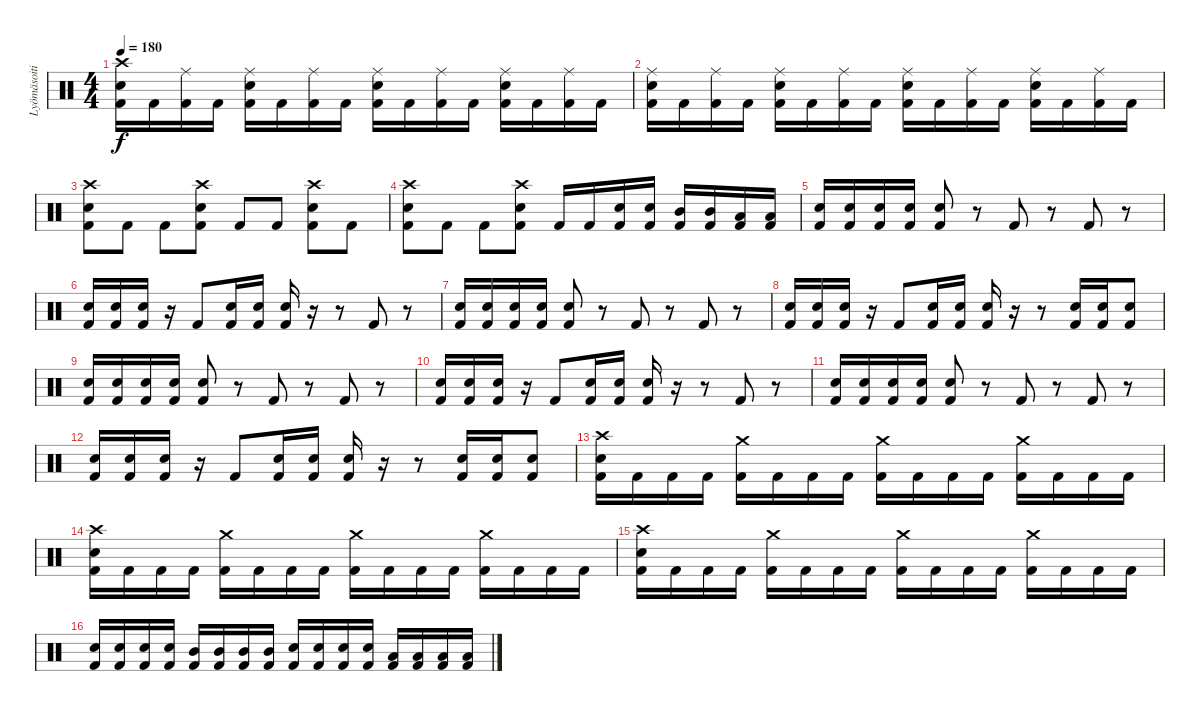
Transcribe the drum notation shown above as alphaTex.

\track ("Lyömäsoitin" "Lyömäsoiti") {instrument percussion}
\staff {score}
\articulation defaults
\ts (4 4)
\tempo 180
\clef neutral
\ks c
("Kick (hit) 2" "Electric Snare (hit)" "Crash high (hit)").16{dy f} "Kick (hit) 2".16 ("Kick (hit) 2" "Ride (middle)").16 "Kick (hit) 2".16 ("Kick (hit) 2" "Electric Snare (hit)" "Ride (middle)").16 "Kick (hit) 2".16 ("Kick (hit) 2" "Ride (middle)").16 "Kick (hit) 2".16 ("Kick (hit) 2" "Electric Snare (hit)" "Ride (middle)").16 "Kick (hit) 2".16 ("Kick (hit) 2" "Ride (middle)").16 "Kick (hit) 2".16 ("Kick (hit) 2" "Electric Snare (hit)" "Ride (middle)").16 "Kick (hit) 2".16 ("Kick (hit) 2" "Ride (middle)").16 "Kick (hit) 2".16 |
("Kick (hit) 2" "Electric Snare (hit)" "Ride (middle)").16 "Kick (hit) 2".16 ("Kick (hit) 2" "Ride (middle)").16 "Kick (hit) 2".16 ("Kick (hit) 2" "Electric Snare (hit)" "Ride (middle)").16 "Kick (hit) 2".16 ("Kick (hit) 2" "Ride (middle)").16 "Kick (hit) 2".16 ("Kick (hit) 2" "Electric Snare (hit)" "Ride (middle)").16 "Kick (hit) 2".16 ("Kick (hit) 2" "Ride (middle)").16 "Kick (hit) 2".16 ("Kick (hit) 2" "Electric Snare (hit)" "Ride (middle)").16 "Kick (hit) 2".16 ("Kick (hit) 2" "Ride (middle)").16 "Kick (hit) 2".16 |
("Kick (hit) 2" "Electric Snare (hit)" "Crash high (hit)").8 "Kick (hit) 2".8 "Kick (hit) 2".8 ("Kick (hit) 2" "Electric Snare (hit)" "Crash high (hit)").8 "Kick (hit) 2".8 "Kick (hit) 2".8 ("Kick (hit) 2" "Electric Snare (hit)" "Crash high (hit)").8 "Kick (hit) 2".8 |
("Kick (hit) 2" "Electric Snare (hit)" "Crash high (hit)").8 "Kick (hit) 2".8 "Kick (hit) 2".8 ("Kick (hit) 2" "Electric Snare (hit)" "Crash high (hit)").8 "Kick (hit) 2".16 "Kick (hit) 2".16 ("Kick (hit) 2" "Electric Snare (hit)").16 ("Kick (hit) 2" "Electric Snare (hit)").16 ("Kick (hit) 2" "Mid Tom (hit)").16 ("Kick (hit) 2" "Mid Tom (hit)").16 ("Kick (hit) 2" "Low Tom (hit)").16 ("Kick (hit) 2" "Low Tom (hit)").16 |
("Kick (hit) 2" "Electric Snare (hit)").16 ("Kick (hit) 2" "Electric Snare (hit)").16 ("Kick (hit) 2" "Electric Snare (hit)").16 ("Kick (hit) 2" "Electric Snare (hit)").16 ("Kick (hit) 2" "Electric Snare (hit)").8 r.8 "Kick (hit) 2".8 r.8 "Kick (hit) 2".8 r.8 |
("Kick (hit) 2" "Electric Snare (hit)").16 ("Kick (hit) 2" "Electric Snare (hit)").16 ("Kick (hit) 2" "Electric Snare (hit)").16 r.16 "Kick (hit) 2".8 ("Kick (hit) 2" "Electric Snare (hit)").16 ("Kick (hit) 2" "Electric Snare (hit)").16 ("Kick (hit) 2" "Electric Snare (hit)").16 r.16 r.8 "Kick (hit) 2".8 r.8 |
("Kick (hit) 2" "Electric Snare (hit)").16 ("Kick (hit) 2" "Electric Snare (hit)").16 ("Kick (hit) 2" "Electric Snare (hit)").16 ("Kick (hit) 2" "Electric Snare (hit)").16 ("Kick (hit) 2" "Electric Snare (hit)").8 r.8 "Kick (hit) 2".8 r.8 "Kick (hit) 2".8 r.8 |
("Kick (hit) 2" "Electric Snare (hit)").16 ("Kick (hit) 2" "Electric Snare (hit)").16 ("Kick (hit) 2" "Electric Snare (hit)").16 r.16 "Kick (hit) 2".8 ("Kick (hit) 2" "Electric Snare (hit)").16 ("Kick (hit) 2" "Electric Snare (hit)").16 ("Kick (hit) 2" "Electric Snare (hit)").16 r.16 r.8 ("Kick (hit) 2" "Electric Snare (hit)").16 ("Kick (hit) 2" "Electric Snare (hit)").16 ("Kick (hit) 2" "Electric Snare (hit)").8 |
("Kick (hit) 2" "Electric Snare (hit)").16 ("Kick (hit) 2" "Electric Snare (hit)").16 ("Kick (hit) 2" "Electric Snare (hit)").16 ("Kick (hit) 2" "Electric Snare (hit)").16 ("Kick (hit) 2" "Electric Snare (hit)").8 r.8 "Kick (hit) 2".8 r.8 "Kick (hit) 2".8 r.8 |
("Kick (hit) 2" "Electric Snare (hit)").16 ("Kick (hit) 2" "Electric Snare (hit)").16 ("Kick (hit) 2" "Electric Snare (hit)").16 r.16 "Kick (hit) 2".8 ("Kick (hit) 2" "Electric Snare (hit)").16 ("Kick (hit) 2" "Electric Snare (hit)").16 ("Kick (hit) 2" "Electric Snare (hit)").16 r.16 r.8 "Kick (hit) 2".8 r.8 |
("Kick (hit) 2" "Electric Snare (hit)").16 ("Kick (hit) 2" "Electric Snare (hit)").16 ("Kick (hit) 2" "Electric Snare (hit)").16 ("Kick (hit) 2" "Electric Snare (hit)").16 ("Kick (hit) 2" "Electric Snare (hit)").8 r.8 "Kick (hit) 2".8 r.8 "Kick (hit) 2".8 r.8 |
("Kick (hit) 2" "Electric Snare (hit)").16 ("Kick (hit) 2" "Electric Snare (hit)").16 ("Kick (hit) 2" "Electric Snare (hit)").16 r.16 "Kick (hit) 2".8 ("Kick (hit) 2" "Electric Snare (hit)").16 ("Kick (hit) 2" "Electric Snare (hit)").16 ("Kick (hit) 2" "Electric Snare (hit)").16 r.16 r.8 ("Kick (hit) 2" "Electric Snare (hit)").16 ("Kick (hit) 2" "Electric Snare (hit)").16 ("Kick (hit) 2" "Electric Snare (hit)").8 |
("Kick (hit) 2" "Electric Snare (hit)" "Crash high (hit)").16 "Kick (hit) 2".16 "Kick (hit) 2".16 "Kick (hit) 2".16 ("Kick (hit) 2" "Crash medium (hit)").16 "Kick (hit) 2".16 "Kick (hit) 2".16 "Kick (hit) 2".16 ("Kick (hit) 2" "Crash medium (hit)").16 "Kick (hit) 2".16 "Kick (hit) 2".16 "Kick (hit) 2".16 ("Kick (hit) 2" "Crash medium (hit)").16 "Kick (hit) 2".16 "Kick (hit) 2".16 "Kick (hit) 2".16 |
("Kick (hit) 2" "Electric Snare (hit)" "Crash high (hit)").16 "Kick (hit) 2".16 "Kick (hit) 2".16 "Kick (hit) 2".16 ("Kick (hit) 2" "Crash medium (hit)").16 "Kick (hit) 2".16 "Kick (hit) 2".16 "Kick (hit) 2".16 ("Kick (hit) 2" "Crash medium (hit)").16 "Kick (hit) 2".16 "Kick (hit) 2".16 "Kick (hit) 2".16 ("Kick (hit) 2" "Crash medium (hit)").16 "Kick (hit) 2".16 "Kick (hit) 2".16 "Kick (hit) 2".16 |
("Kick (hit) 2" "Electric Snare (hit)" "Crash high (hit)").16 "Kick (hit) 2".16 "Kick (hit) 2".16 "Kick (hit) 2".16 ("Kick (hit) 2" "Crash medium (hit)").16 "Kick (hit) 2".16 "Kick (hit) 2".16 "Kick (hit) 2".16 ("Kick (hit) 2" "Crash medium (hit)").16 "Kick (hit) 2".16 "Kick (hit) 2".16 "Kick (hit) 2".16 ("Kick (hit) 2" "Crash medium (hit)").16 "Kick (hit) 2".16 "Kick (hit) 2".16 "Kick (hit) 2".16 |
("Kick (hit) 2" "Electric Snare (hit)").16 ("Kick (hit) 2" "Electric Snare (hit)").16 ("Kick (hit) 2" "Electric Snare (hit)").16 ("Kick (hit) 2" "Electric Snare (hit)").16 ("Kick (hit) 2" "Mid Tom (hit)").16 ("Kick (hit) 2" "Mid Tom (hit)").16 ("Kick (hit) 2" "Mid Tom (hit)").16 ("Kick (hit) 2" "Mid Tom (hit)").16 ("Kick (hit) 2" "Electric Snare (hit)").16 ("Kick (hit) 2" "Electric Snare (hit)").16 ("Kick (hit) 2" "Electric Snare (hit)").16 ("Kick (hit) 2" "Electric Snare (hit)").16 ("Kick (hit) 2" "Low Tom (hit)").16 ("Kick (hit) 2" "Low Tom (hit)").16 ("Kick (hit) 2" "Low Tom (hit)").16 ("Kick (hit) 2" "Low Tom (hit)").16
